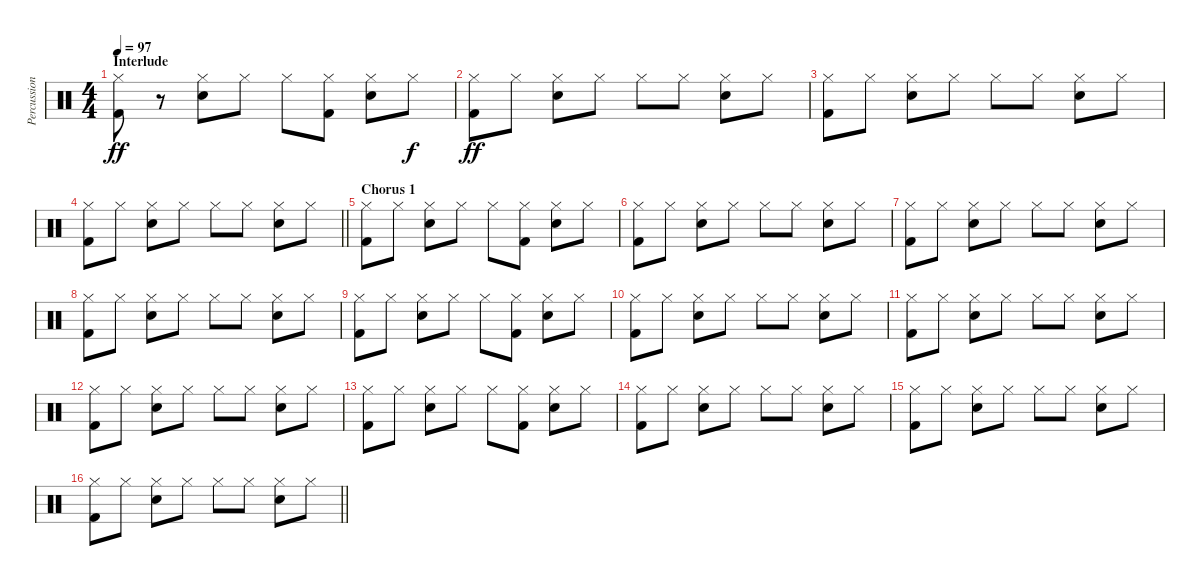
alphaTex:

\track ("Percussion" "Percussion") {instrument percussion}
\staff {score}
\articulation defaults
\ts (4 4)
\section ("" "Interlude")
\tempo 97
\clef neutral
\ks c
("Hi-Hat (closed)" "Kick (hit) 2").8{dy ff} r.8 ("Hi-Hat (closed)" "Snare (hit) 2").8 "Hi-Hat (closed)".8 "Hi-Hat (closed)".8 ("Hi-Hat (closed)" "Kick (hit) 2").8 ("Hi-Hat (closed)" "Snare (hit) 2").8 "Hi-Hat (closed)".8{dy f} |
("Hi-Hat (closed)" "Kick (hit) 2").8{dy ff} "Hi-Hat (closed)".8 ("Hi-Hat (closed)" "Snare (hit) 2").8 "Hi-Hat (closed)".8 "Hi-Hat (closed)".8 "Hi-Hat (closed)".8 ("Hi-Hat (closed)" "Snare (hit) 2").8 "Hi-Hat (closed)".8 |
("Hi-Hat (closed)" "Kick (hit) 2").8 "Hi-Hat (closed)".8 ("Hi-Hat (closed)" "Snare (hit) 2").8 "Hi-Hat (closed)".8 "Hi-Hat (closed)".8 "Hi-Hat (closed)".8 ("Hi-Hat (closed)" "Snare (hit) 2").8 "Hi-Hat (closed)".8 |
\barLineRight lightlight
("Hi-Hat (closed)" "Kick (hit) 2").8 "Hi-Hat (closed)".8 ("Hi-Hat (closed)" "Snare (hit) 2").8 "Hi-Hat (closed)".8 "Hi-Hat (closed)".8 "Hi-Hat (closed)".8 ("Hi-Hat (closed)" "Snare (hit) 2").8 "Hi-Hat (closed)".8 |
\section ("" "Chorus 1")
("Hi-Hat (closed)" "Kick (hit) 2").8 "Hi-Hat (closed)".8 ("Hi-Hat (closed)" "Snare (hit) 2").8 "Hi-Hat (closed)".8 "Hi-Hat (closed)".8 ("Hi-Hat (closed)" "Kick (hit) 2").8 ("Hi-Hat (closed)" "Snare (hit) 2").8 "Hi-Hat (closed)".8 |
("Hi-Hat (closed)" "Kick (hit) 2").8 "Hi-Hat (closed)".8 ("Hi-Hat (closed)" "Snare (hit) 2").8 "Hi-Hat (closed)".8 "Hi-Hat (closed)".8 "Hi-Hat (closed)".8 ("Hi-Hat (closed)" "Snare (hit) 2").8 "Hi-Hat (closed)".8 |
("Hi-Hat (closed)" "Kick (hit) 2").8 "Hi-Hat (closed)".8 ("Hi-Hat (closed)" "Snare (hit) 2").8 "Hi-Hat (closed)".8 "Hi-Hat (closed)".8 "Hi-Hat (closed)".8 ("Hi-Hat (closed)" "Snare (hit) 2").8 "Hi-Hat (closed)".8 |
("Hi-Hat (closed)" "Kick (hit) 2").8 "Hi-Hat (closed)".8 ("Hi-Hat (closed)" "Snare (hit) 2").8 "Hi-Hat (closed)".8 "Hi-Hat (closed)".8 "Hi-Hat (closed)".8 ("Hi-Hat (closed)" "Snare (hit) 2").8 "Hi-Hat (closed)".8 |
("Hi-Hat (closed)" "Kick (hit) 2").8 "Hi-Hat (closed)".8 ("Hi-Hat (closed)" "Snare (hit) 2").8 "Hi-Hat (closed)".8 "Hi-Hat (closed)".8 ("Hi-Hat (closed)" "Kick (hit) 2").8 ("Hi-Hat (closed)" "Snare (hit) 2").8 "Hi-Hat (closed)".8 |
("Hi-Hat (closed)" "Kick (hit) 2").8 "Hi-Hat (closed)".8 ("Hi-Hat (closed)" "Snare (hit) 2").8 "Hi-Hat (closed)".8 "Hi-Hat (closed)".8 "Hi-Hat (closed)".8 ("Hi-Hat (closed)" "Snare (hit) 2").8 "Hi-Hat (closed)".8 |
("Hi-Hat (closed)" "Kick (hit) 2").8 "Hi-Hat (closed)".8 ("Hi-Hat (closed)" "Snare (hit) 2").8 "Hi-Hat (closed)".8 "Hi-Hat (closed)".8 "Hi-Hat (closed)".8 ("Hi-Hat (closed)" "Snare (hit) 2").8 "Hi-Hat (closed)".8 |
("Hi-Hat (closed)" "Kick (hit) 2").8 "Hi-Hat (closed)".8 ("Hi-Hat (closed)" "Snare (hit) 2").8 "Hi-Hat (closed)".8 "Hi-Hat (closed)".8 "Hi-Hat (closed)".8 ("Hi-Hat (closed)" "Snare (hit) 2").8 "Hi-Hat (closed)".8 |
("Hi-Hat (closed)" "Kick (hit) 2").8 "Hi-Hat (closed)".8 ("Hi-Hat (closed)" "Snare (hit) 2").8 "Hi-Hat (closed)".8 "Hi-Hat (closed)".8 ("Hi-Hat (closed)" "Kick (hit) 2").8 ("Hi-Hat (closed)" "Snare (hit) 2").8 "Hi-Hat (closed)".8 |
("Hi-Hat (closed)" "Kick (hit) 2").8 "Hi-Hat (closed)".8 ("Hi-Hat (closed)" "Snare (hit) 2").8 "Hi-Hat (closed)".8 "Hi-Hat (closed)".8 "Hi-Hat (closed)".8 ("Hi-Hat (closed)" "Snare (hit) 2").8 "Hi-Hat (closed)".8 |
("Hi-Hat (closed)" "Kick (hit) 2").8 "Hi-Hat (closed)".8 ("Hi-Hat (closed)" "Snare (hit) 2").8 "Hi-Hat (closed)".8 "Hi-Hat (closed)".8 "Hi-Hat (closed)".8 ("Hi-Hat (closed)" "Snare (hit) 2").8 "Hi-Hat (closed)".8 |
\barLineRight lightlight
("Hi-Hat (closed)" "Kick (hit) 2").8 "Hi-Hat (closed)".8 ("Hi-Hat (closed)" "Snare (hit) 2").8 "Hi-Hat (closed)".8 "Hi-Hat (closed)".8 "Hi-Hat (closed)".8 ("Hi-Hat (closed)" "Snare (hit) 2").8 "Hi-Hat (closed)".8
